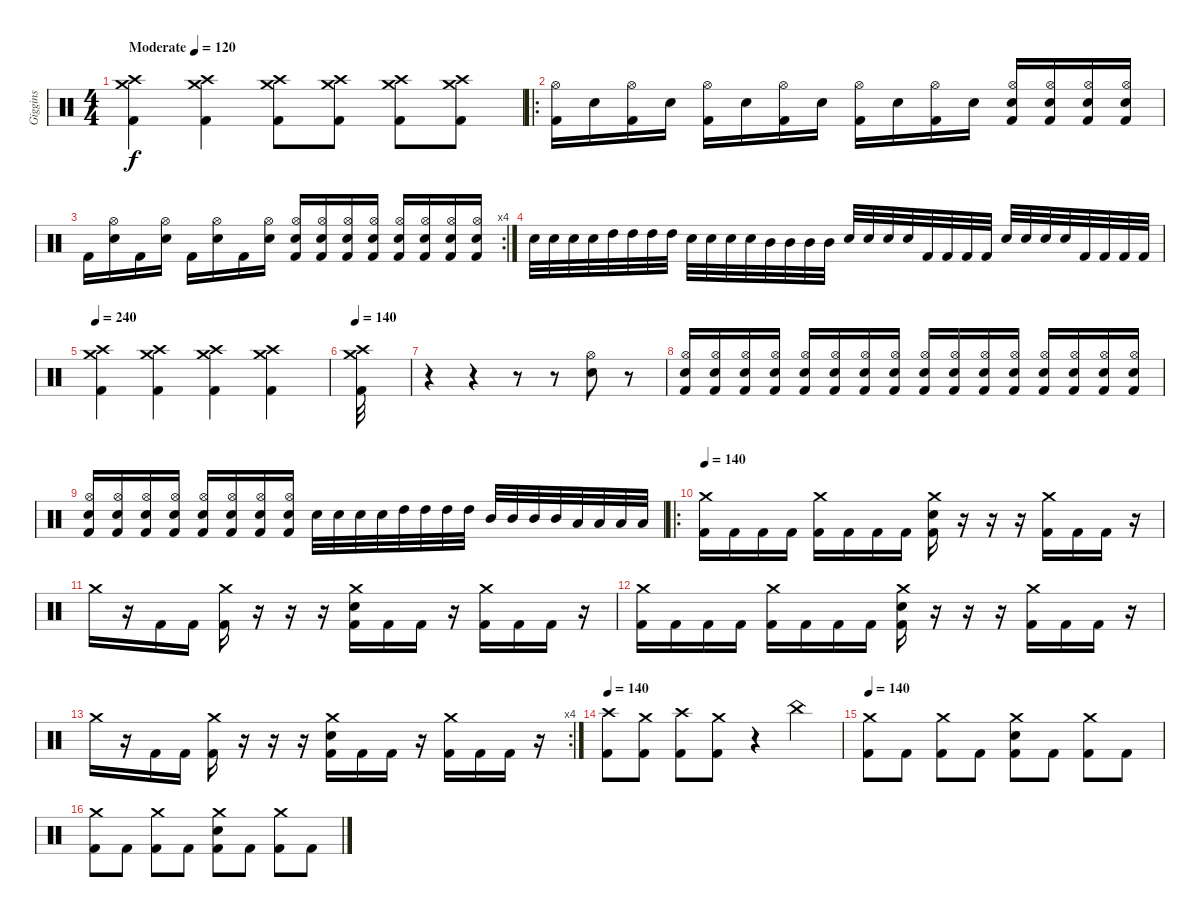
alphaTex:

\track ("Giggins" "Giggins") {instrument percussion}
\staff {score}
\articulation defaults
\ts (4 4)
\tempo (120 "Moderate")
\tempo 130
\tempo (120 "Moderate")
\clef neutral
\ks c
("Crash high (hit)" "Crash medium (hit)" "Kick (hit) 2").4{dy f} ("Crash high (hit)" "Crash medium (hit)" "Kick (hit) 2").4 ("Crash high (hit)" "Crash medium (hit)" "Kick (hit) 2").8 ("Crash high (hit)" "Crash medium (hit)" "Kick (hit) 2").8 ("Crash high (hit)" "Crash medium (hit)" "Kick (hit) 2").8 ("Crash high (hit)" "Crash medium (hit)" "Kick (hit) 2").8 |
\ro
("Hi-Hat (open)" "Kick (hit) 2").16 "Snare (hit) 2".16 ("Hi-Hat (open)" "Kick (hit) 2").16 "Snare (hit) 2".16 ("Hi-Hat (open)" "Kick (hit) 2").16 "Snare (hit) 2".16 ("Hi-Hat (open)" "Kick (hit) 2").16 "Snare (hit) 2".16 ("Hi-Hat (open)" "Kick (hit) 2").16 "Snare (hit) 2".16 ("Hi-Hat (open)" "Kick (hit) 2").16 "Snare (hit) 2".16 ("Hi-Hat (open)" "Kick (hit) 2" "Snare (hit) 2").16 ("Hi-Hat (open)" "Kick (hit) 2" "Snare (hit) 2").16 ("Hi-Hat (open)" "Kick (hit) 2" "Snare (hit) 2").16 ("Hi-Hat (open)" "Kick (hit) 2" "Snare (hit) 2").16 |
\rc 4 "Kick (hit) 2".16
("Hi-Hat (open)" "Snare (hit) 2").16 "Kick (hit) 2".16 ("Hi-Hat (open)" "Snare (hit) 2").16 "Kick (hit) 2".16 ("Hi-Hat (open)" "Snare (hit) 2").16 "Kick (hit) 2".16 ("Hi-Hat (open)" "Snare (hit) 2").16 ("Hi-Hat (open)" "Kick (hit) 2" "Snare (hit) 2").16 ("Hi-Hat (open)" "Kick (hit) 2" "Snare (hit) 2").16 ("Hi-Hat (open)" "Kick (hit) 2" "Snare (hit) 2").16 ("Hi-Hat (open)" "Kick (hit) 2" "Snare (hit) 2").16 ("Hi-Hat (open)" "Kick (hit) 2" "Snare (hit) 2").16 ("Hi-Hat (open)" "Kick (hit) 2" "Snare (hit) 2").16 ("Hi-Hat (open)" "Kick (hit) 2" "Snare (hit) 2").16 ("Hi-Hat (open)" "Kick (hit) 2" "Snare (hit) 2").16 |
"Snare (hit) 2".32 "Snare (hit) 2".32 "Snare (hit) 2".32 "Snare (hit) 2".32 "High Tom (hit)".32 "High Tom (hit)".32 "High Tom (hit)".32 "High Tom (hit)".32 "Snare (hit) 2".32 "Snare (hit) 2".32 "Snare (hit) 2".32 "Snare (hit) 2".32 "Mid Tom (hit)".32 "Mid Tom (hit)".32 "Mid Tom (hit)".32 "Mid Tom (hit)".32 "Snare (hit) 2".32 "Snare (hit) 2".32 "Snare (hit) 2".32 "Snare (hit) 2".32 "Kick (hit) 2".32 "Kick (hit) 2".32 "Kick (hit) 2".32 "Kick (hit) 2".32 "Snare (hit) 2".32 "Snare (hit) 2".32 "Snare (hit) 2".32 "Snare (hit) 2".32 "Kick (hit) 2".32 "Kick (hit) 2".32 "Kick (hit) 2".32 "Kick (hit) 2".32 |
\tempo 240
("Crash high (hit)" "Crash medium (hit)" "Kick (hit) 2").4 ("Crash high (hit)" "Crash medium (hit)" "Kick (hit) 2").4 ("Crash high (hit)" "Crash medium (hit)" "Kick (hit) 2").4 ("Crash high (hit)" "Crash medium (hit)" "Kick (hit) 2").4 |
\tempo 140
("Crash high (hit)" "Crash medium (hit)" "Kick (hit) 2").32 |
r.4 r.4 r.8 r.8 ("Hi-Hat (open)" "Snare (hit) 2").8 r.8 |
("Hi-Hat (open)" "Kick (hit) 2" "Snare (hit) 2").16 ("Hi-Hat (open)" "Kick (hit) 2" "Snare (hit) 2").16 ("Hi-Hat (open)" "Kick (hit) 2" "Snare (hit) 2").16 ("Hi-Hat (open)" "Kick (hit) 2" "Snare (hit) 2").16 ("Hi-Hat (open)" "Kick (hit) 2" "Snare (hit) 2").16 ("Hi-Hat (open)" "Kick (hit) 2" "Snare (hit) 2").16 ("Hi-Hat (open)" "Kick (hit) 2" "Snare (hit) 2").16 ("Hi-Hat (open)" "Kick (hit) 2" "Snare (hit) 2").16 ("Hi-Hat (open)" "Kick (hit) 2" "Snare (hit) 2").16 ("Hi-Hat (open)" "Kick (hit) 2" "Snare (hit) 2").16 ("Hi-Hat (open)" "Kick (hit) 2" "Snare (hit) 2").16 ("Hi-Hat (open)" "Kick (hit) 2" "Snare (hit) 2").16 ("Hi-Hat (open)" "Kick (hit) 2" "Snare (hit) 2").16 ("Hi-Hat (open)" "Kick (hit) 2" "Snare (hit) 2").16 ("Hi-Hat (open)" "Kick (hit) 2" "Snare (hit) 2").16 ("Hi-Hat (open)" "Kick (hit) 2" "Snare (hit) 2").16 |
("Hi-Hat (open)" "Kick (hit) 2" "Snare (hit) 2").16 ("Hi-Hat (open)" "Kick (hit) 2" "Snare (hit) 2").16 ("Hi-Hat (open)" "Kick (hit) 2" "Snare (hit) 2").16 ("Hi-Hat (open)" "Kick (hit) 2" "Snare (hit) 2").16 ("Hi-Hat (open)" "Kick (hit) 2" "Snare (hit) 2").16 ("Hi-Hat (open)" "Kick (hit) 2" "Snare (hit) 2").16 ("Hi-Hat (open)" "Kick (hit) 2" "Snare (hit) 2").16 ("Hi-Hat (open)" "Kick (hit) 2" "Snare (hit) 2").16 "Snare (hit) 2".32 "Snare (hit) 2".32 "Snare (hit) 2".32 "Snare (hit) 2".32 "High Tom (hit)".32 "High Tom (hit)".32 "High Tom (hit)".32 "High Tom (hit)".32 "Mid Tom (hit)".32 "Mid Tom (hit)".32 "Mid Tom (hit)".32 "Mid Tom (hit)".32 "Low Tom (hit)".32 "Low Tom (hit)".32 "Low Tom (hit)".32 "Low Tom (hit)".32 |
\ro
\tempo 140
("Crash medium (hit)" "Kick (hit) 2").16 "Kick (hit) 2".16 "Kick (hit) 2".16 "Kick (hit) 2".16 ("Crash medium (hit)" "Kick (hit) 2").16 "Kick (hit) 2".16 "Kick (hit) 2".16 "Kick (hit) 2".16 ("Crash medium (hit)" "Snare (hit) 2" "Kick (hit) 2").16 r.16 r.16 r.16 ("Crash medium (hit)" "Kick (hit) 2").16 "Kick (hit) 2".16 "Kick (hit) 2".16 r.16 |
"Crash medium (hit)".16 r.16 "Kick (hit) 2".16 "Kick (hit) 2".16 ("Crash medium (hit)" "Kick (hit) 2").16 r.16 r.16 r.16 ("Crash medium (hit)" "Snare (hit) 2" "Kick (hit) 2").16 "Kick (hit) 2".16 "Kick (hit) 2".16 r.16 ("Crash medium (hit)" "Kick (hit) 2").16 "Kick (hit) 2".16 "Kick (hit) 2".16 r.16 |
("Crash medium (hit)" "Kick (hit) 2").16 "Kick (hit) 2".16 "Kick (hit) 2".16 "Kick (hit) 2".16 ("Crash medium (hit)" "Kick (hit) 2").16 "Kick (hit) 2".16 "Kick (hit) 2".16 "Kick (hit) 2".16 ("Crash medium (hit)" "Snare (hit) 2" "Kick (hit) 2").16 r.16 r.16 r.16 ("Crash medium (hit)" "Kick (hit) 2").16 "Kick (hit) 2".16 "Kick (hit) 2".16 r.16 |
\rc 4 "Crash medium (hit)".16
r.16 "Kick (hit) 2".16 "Kick (hit) 2".16 ("Crash medium (hit)" "Kick (hit) 2").16 r.16 r.16 r.16 ("Crash medium (hit)" "Snare (hit) 2" "Kick (hit) 2").16 "Kick (hit) 2".16 "Kick (hit) 2".16 r.16 ("Crash medium (hit)" "Kick (hit) 2").16 "Kick (hit) 2".16 "Kick (hit) 2".16 r.16 |
\tempo 140
("Crash high (hit)" "Kick (hit) 2").8 ("Crash medium (hit)" "Kick (hit) 2").8 ("Crash high (hit)" "Kick (hit) 2").8 ("Crash medium (hit)" "Kick (hit) 2").8 r.4 "China (hit)".4 |
\tempo 150
\tempo 140
("Crash medium (hit)" "Kick (hit) 2").8 "Kick (hit) 2".8 ("Crash medium (hit)" "Kick (hit) 2").8 "Kick (hit) 2".8 ("Crash medium (hit)" "Snare (hit) 2" "Kick (hit) 2").8 "Kick (hit) 2".8 ("Crash medium (hit)" "Kick (hit) 2").8 "Kick (hit) 2".8 |
("Crash medium (hit)" "Kick (hit) 2").8 "Kick (hit) 2".8 ("Crash medium (hit)" "Kick (hit) 2").8 "Kick (hit) 2".8 ("Crash medium (hit)" "Snare (hit) 2" "Kick (hit) 2").8 "Kick (hit) 2".8 ("Crash medium (hit)" "Kick (hit) 2").8 "Kick (hit) 2".8
